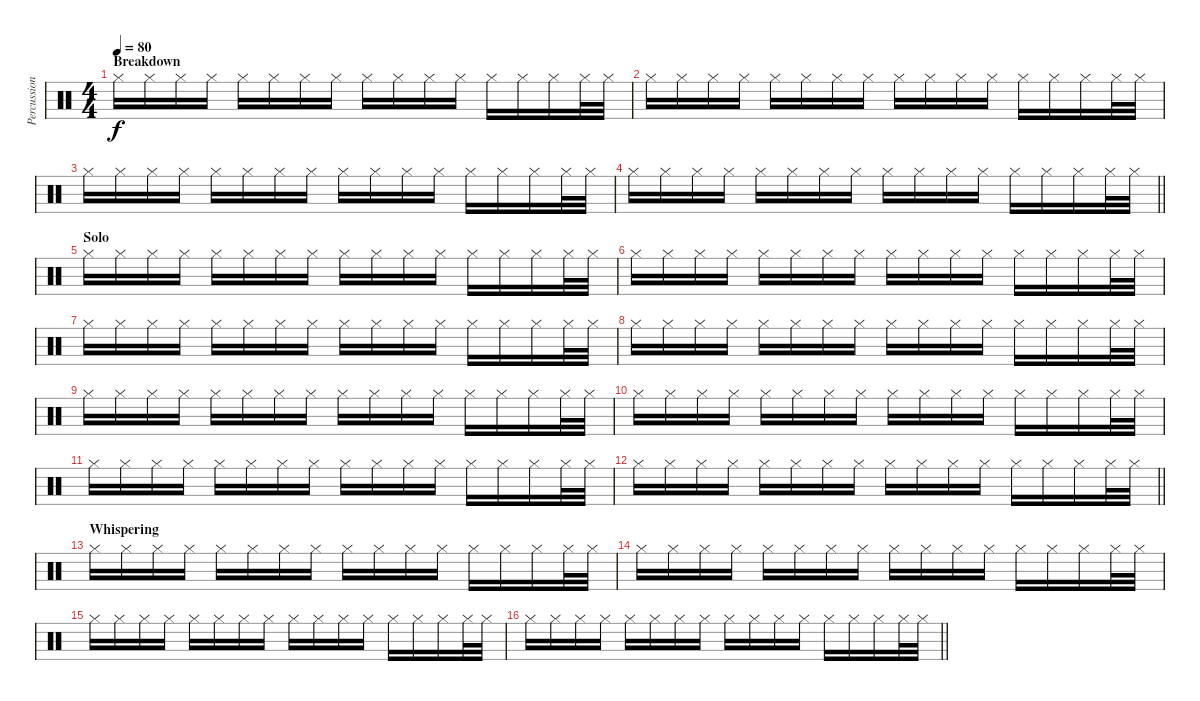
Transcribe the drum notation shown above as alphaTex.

\track ("Percussion" "Percussion") {instrument percussion}
\staff {score}
\articulation defaults
\ts (4 4)
\section ("" "Breakdown")
\tempo 80
\clef neutral
\ks c "Hi-Hat (closed)".16{dy f} "Hi-Hat (closed)".16 "Hi-Hat (closed)".16 "Hi-Hat (closed)".16 "Hi-Hat (closed)".16 "Hi-Hat (closed)".16 "Hi-Hat (closed)".16 "Hi-Hat (closed)".16 "Hi-Hat (closed)".16 "Hi-Hat (closed)".16 "Hi-Hat (closed)".16 "Hi-Hat (closed)".16 "Hi-Hat (closed)".16 "Hi-Hat (closed)".16 "Hi-Hat (closed)".16 "Hi-Hat (closed)".32 "Hi-Hat (closed)".32
|
"Hi-Hat (closed)".16 "Hi-Hat (closed)".16 "Hi-Hat (closed)".16 "Hi-Hat (closed)".16 "Hi-Hat (closed)".16 "Hi-Hat (closed)".16 "Hi-Hat (closed)".16 "Hi-Hat (closed)".16 "Hi-Hat (closed)".16 "Hi-Hat (closed)".16 "Hi-Hat (closed)".16 "Hi-Hat (closed)".16 "Hi-Hat (closed)".16 "Hi-Hat (closed)".16 "Hi-Hat (closed)".16 "Hi-Hat (closed)".32 "Hi-Hat (closed)".32 |
"Hi-Hat (closed)".16 "Hi-Hat (closed)".16 "Hi-Hat (closed)".16 "Hi-Hat (closed)".16 "Hi-Hat (closed)".16 "Hi-Hat (closed)".16 "Hi-Hat (closed)".16 "Hi-Hat (closed)".16 "Hi-Hat (closed)".16 "Hi-Hat (closed)".16 "Hi-Hat (closed)".16 "Hi-Hat (closed)".16 "Hi-Hat (closed)".16 "Hi-Hat (closed)".16 "Hi-Hat (closed)".16 "Hi-Hat (closed)".32 "Hi-Hat (closed)".32 |
\barLineRight lightlight "Hi-Hat (closed)".16 "Hi-Hat (closed)".16 "Hi-Hat (closed)".16 "Hi-Hat (closed)".16 "Hi-Hat (closed)".16 "Hi-Hat (closed)".16 "Hi-Hat (closed)".16 "Hi-Hat (closed)".16 "Hi-Hat (closed)".16 "Hi-Hat (closed)".16 "Hi-Hat (closed)".16 "Hi-Hat (closed)".16 "Hi-Hat (closed)".16 "Hi-Hat (closed)".16 "Hi-Hat (closed)".16 "Hi-Hat (closed)".32 "Hi-Hat (closed)".32
|
\section ("" "Solo")
"Hi-Hat (closed)".16 "Hi-Hat (closed)".16 "Hi-Hat (closed)".16 "Hi-Hat (closed)".16 "Hi-Hat (closed)".16 "Hi-Hat (closed)".16 "Hi-Hat (closed)".16 "Hi-Hat (closed)".16 "Hi-Hat (closed)".16 "Hi-Hat (closed)".16 "Hi-Hat (closed)".16 "Hi-Hat (closed)".16 "Hi-Hat (closed)".16 "Hi-Hat (closed)".16 "Hi-Hat (closed)".16 "Hi-Hat (closed)".32 "Hi-Hat (closed)".32 |
"Hi-Hat (closed)".16 "Hi-Hat (closed)".16 "Hi-Hat (closed)".16 "Hi-Hat (closed)".16 "Hi-Hat (closed)".16 "Hi-Hat (closed)".16 "Hi-Hat (closed)".16 "Hi-Hat (closed)".16 "Hi-Hat (closed)".16 "Hi-Hat (closed)".16 "Hi-Hat (closed)".16 "Hi-Hat (closed)".16 "Hi-Hat (closed)".16 "Hi-Hat (closed)".16 "Hi-Hat (closed)".16 "Hi-Hat (closed)".32 "Hi-Hat (closed)".32 |
"Hi-Hat (closed)".16 "Hi-Hat (closed)".16 "Hi-Hat (closed)".16 "Hi-Hat (closed)".16 "Hi-Hat (closed)".16 "Hi-Hat (closed)".16 "Hi-Hat (closed)".16 "Hi-Hat (closed)".16 "Hi-Hat (closed)".16 "Hi-Hat (closed)".16 "Hi-Hat (closed)".16 "Hi-Hat (closed)".16 "Hi-Hat (closed)".16 "Hi-Hat (closed)".16 "Hi-Hat (closed)".16 "Hi-Hat (closed)".32 "Hi-Hat (closed)".32 |
"Hi-Hat (closed)".16 "Hi-Hat (closed)".16 "Hi-Hat (closed)".16 "Hi-Hat (closed)".16 "Hi-Hat (closed)".16 "Hi-Hat (closed)".16 "Hi-Hat (closed)".16 "Hi-Hat (closed)".16 "Hi-Hat (closed)".16 "Hi-Hat (closed)".16 "Hi-Hat (closed)".16 "Hi-Hat (closed)".16 "Hi-Hat (closed)".16 "Hi-Hat (closed)".16 "Hi-Hat (closed)".16 "Hi-Hat (closed)".32 "Hi-Hat (closed)".32 |
"Hi-Hat (closed)".16 "Hi-Hat (closed)".16 "Hi-Hat (closed)".16 "Hi-Hat (closed)".16 "Hi-Hat (closed)".16 "Hi-Hat (closed)".16 "Hi-Hat (closed)".16 "Hi-Hat (closed)".16 "Hi-Hat (closed)".16 "Hi-Hat (closed)".16 "Hi-Hat (closed)".16 "Hi-Hat (closed)".16 "Hi-Hat (closed)".16 "Hi-Hat (closed)".16 "Hi-Hat (closed)".16 "Hi-Hat (closed)".32 "Hi-Hat (closed)".32 |
"Hi-Hat (closed)".16 "Hi-Hat (closed)".16 "Hi-Hat (closed)".16 "Hi-Hat (closed)".16 "Hi-Hat (closed)".16 "Hi-Hat (closed)".16 "Hi-Hat (closed)".16 "Hi-Hat (closed)".16 "Hi-Hat (closed)".16 "Hi-Hat (closed)".16 "Hi-Hat (closed)".16 "Hi-Hat (closed)".16 "Hi-Hat (closed)".16 "Hi-Hat (closed)".16 "Hi-Hat (closed)".16 "Hi-Hat (closed)".32 "Hi-Hat (closed)".32 |
"Hi-Hat (closed)".16 "Hi-Hat (closed)".16 "Hi-Hat (closed)".16 "Hi-Hat (closed)".16 "Hi-Hat (closed)".16 "Hi-Hat (closed)".16 "Hi-Hat (closed)".16 "Hi-Hat (closed)".16 "Hi-Hat (closed)".16 "Hi-Hat (closed)".16 "Hi-Hat (closed)".16 "Hi-Hat (closed)".16 "Hi-Hat (closed)".16 "Hi-Hat (closed)".16 "Hi-Hat (closed)".16 "Hi-Hat (closed)".32 "Hi-Hat (closed)".32 |
\barLineRight lightlight "Hi-Hat (closed)".16 "Hi-Hat (closed)".16 "Hi-Hat (closed)".16 "Hi-Hat (closed)".16 "Hi-Hat (closed)".16 "Hi-Hat (closed)".16 "Hi-Hat (closed)".16 "Hi-Hat (closed)".16 "Hi-Hat (closed)".16 "Hi-Hat (closed)".16 "Hi-Hat (closed)".16 "Hi-Hat (closed)".16 "Hi-Hat (closed)".16 "Hi-Hat (closed)".16 "Hi-Hat (closed)".16 "Hi-Hat (closed)".32 "Hi-Hat (closed)".32
|
\section ("" "Whispering")
"Hi-Hat (closed)".16 "Hi-Hat (closed)".16 "Hi-Hat (closed)".16 "Hi-Hat (closed)".16 "Hi-Hat (closed)".16 "Hi-Hat (closed)".16 "Hi-Hat (closed)".16 "Hi-Hat (closed)".16 "Hi-Hat (closed)".16 "Hi-Hat (closed)".16 "Hi-Hat (closed)".16 "Hi-Hat (closed)".16 "Hi-Hat (closed)".16 "Hi-Hat (closed)".16 "Hi-Hat (closed)".16 "Hi-Hat (closed)".32 "Hi-Hat (closed)".32 |
"Hi-Hat (closed)".16 "Hi-Hat (closed)".16 "Hi-Hat (closed)".16 "Hi-Hat (closed)".16 "Hi-Hat (closed)".16 "Hi-Hat (closed)".16 "Hi-Hat (closed)".16 "Hi-Hat (closed)".16 "Hi-Hat (closed)".16 "Hi-Hat (closed)".16 "Hi-Hat (closed)".16 "Hi-Hat (closed)".16 "Hi-Hat (closed)".16 "Hi-Hat (closed)".16 "Hi-Hat (closed)".16 "Hi-Hat (closed)".32 "Hi-Hat (closed)".32 |
"Hi-Hat (closed)".16 "Hi-Hat (closed)".16 "Hi-Hat (closed)".16 "Hi-Hat (closed)".16 "Hi-Hat (closed)".16 "Hi-Hat (closed)".16 "Hi-Hat (closed)".16 "Hi-Hat (closed)".16 "Hi-Hat (closed)".16 "Hi-Hat (closed)".16 "Hi-Hat (closed)".16 "Hi-Hat (closed)".16 "Hi-Hat (closed)".16 "Hi-Hat (closed)".16 "Hi-Hat (closed)".16 "Hi-Hat (closed)".32 "Hi-Hat (closed)".32 |
\barLineRight lightlight "Hi-Hat (closed)".16 "Hi-Hat (closed)".16 "Hi-Hat (closed)".16 "Hi-Hat (closed)".16 "Hi-Hat (closed)".16 "Hi-Hat (closed)".16 "Hi-Hat (closed)".16 "Hi-Hat (closed)".16 "Hi-Hat (closed)".16 "Hi-Hat (closed)".16 "Hi-Hat (closed)".16 "Hi-Hat (closed)".16 "Hi-Hat (closed)".16 "Hi-Hat (closed)".16 "Hi-Hat (closed)".16 "Hi-Hat (closed)".32 "Hi-Hat (closed)".32
